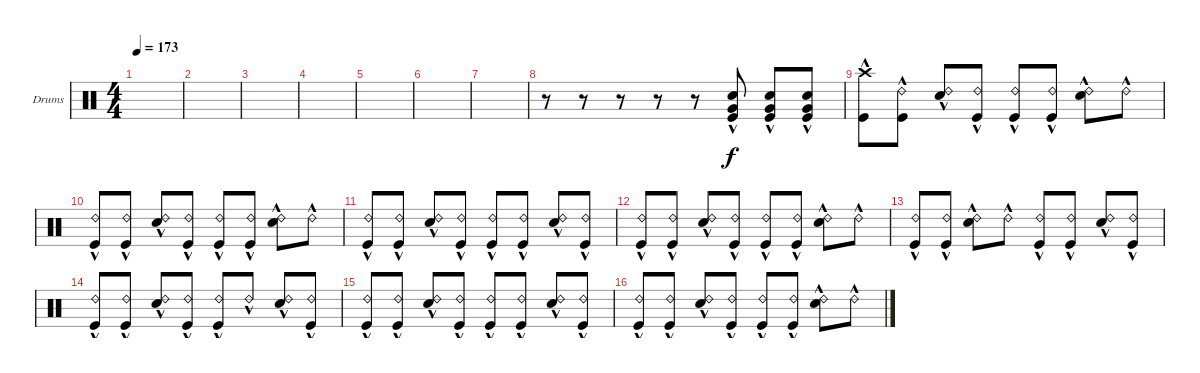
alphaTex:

\defaultSystemsLayout 4
\bracketExtendMode groupsimilarinstruments
\firstSystemTrackNameOrientation horizontal
\otherSystemsTrackNameOrientation horizontal
\track ("Drumkit" "Drums") {instrument percussion}
\staff {score}
\articulation defaults
\ts (4 4)
\tempo 173
\clef neutral
\scale
0.472222
\ks c
|
\scale
0.263889 |
\scale
0.263889 |
\scale
0.333333 |
\scale
0.333333 |
\scale
0.333333 |
|
r.8 r.8 r.8 r.8 r.8 ("Kick (hit)"{hac} "Snare (hit) 2"{hac} "Very Low Tom (hit)"{hac}).8 ("Kick (hit)"{hac} "Snare (hit) 2"{hac} "Very Low Tom (hit)"{hac}).8 ("Kick (hit)"{hac} "Snare (hit) 2"{hac} "Very Low Tom (hit)"{hac}).8 |
("Kick (hit)"{hac} "Crash high (hit)"{hac}).8 ("Ride (bell) 2"{hac} "Kick (hit)"{hac}).8 ("Ride (bell) 2"{hac} "Snare (hit) 2"{hac}).8 ("Ride (bell) 2"{hac} "Kick (hit)"{hac}).8 ("Ride (bell) 2"{hac} "Kick (hit)"{hac}).8 ("Ride (bell) 2"{hac} "Kick (hit)"{hac}).8 ("Ride (bell) 2"{hac} "Snare (hit) 2"{hac}).8 "Ride (bell) 2"{hac}.8 |
("Ride (bell) 2"{hac} "Kick (hit)"{hac}).8 ("Ride (bell) 2"{hac} "Kick (hit)"{hac}).8 ("Ride (bell) 2"{hac} "Snare (hit) 2"{hac}).8 ("Ride (bell) 2"{hac} "Kick (hit)"{hac}).8 ("Ride (bell) 2"{hac} "Kick (hit)"{hac}).8 ("Ride (bell) 2"{hac} "Kick (hit)"{hac}).8 ("Ride (bell) 2"{hac} "Snare (hit) 2"{hac}).8 "Ride (bell) 2"{hac}.8 |
("Ride (bell) 2"{hac} "Kick (hit)"{hac}).8 ("Ride (bell) 2"{hac} "Kick (hit)"{hac}).8 ("Ride (bell) 2"{hac} "Snare (hit) 2"{hac}).8 ("Ride (bell) 2"{hac} "Kick (hit)"{hac}).8 ("Ride (bell) 2"{hac} "Kick (hit)"{hac}).8 ("Ride (bell) 2"{hac} "Kick (hit)"{hac}).8 ("Ride (bell) 2"{hac} "Snare (hit) 2"{hac}).8 ("Ride (bell) 2"{hac} "Kick (hit)"{hac}).8 |
("Ride (bell) 2"{hac} "Kick (hit)"{hac}).8 ("Ride (bell) 2"{hac} "Kick (hit)"{hac}).8 ("Ride (bell) 2"{hac} "Snare (hit) 2"{hac}).8 ("Ride (bell) 2"{hac} "Kick (hit)"{hac}).8 ("Ride (bell) 2"{hac} "Kick (hit)"{hac}).8 ("Ride (bell) 2"{hac} "Kick (hit)"{hac}).8 ("Ride (bell) 2"{hac} "Snare (hit) 2"{hac}).8 "Ride (bell) 2"{hac}.8 |
("Ride (bell) 2"{hac} "Kick (hit)"{hac}).8 ("Ride (bell) 2"{hac} "Kick (hit)"{hac}).8 ("Ride (bell) 2"{hac} "Snare (hit) 2"{hac}).8 "Ride (bell) 2"{hac}.8 ("Ride (bell) 2"{hac} "Kick (hit)"{hac}).8 ("Ride (bell) 2"{hac} "Kick (hit)"{hac}).8 ("Ride (bell) 2"{hac} "Snare (hit) 2"{hac}).8 ("Ride (bell) 2"{hac} "Kick (hit)"{hac}).8 |
("Ride (bell) 2"{hac} "Kick (hit)"{hac}).8 ("Ride (bell) 2"{hac} "Kick (hit)"{hac}).8 ("Ride (bell) 2"{hac} "Snare (hit) 2"{hac}).8 ("Ride (bell) 2"{hac} "Kick (hit)"{hac}).8 ("Ride (bell) 2"{hac} "Kick (hit)"{hac}).8 "Ride (bell) 2"{hac}.8 ("Ride (bell) 2"{hac} "Snare (hit) 2"{hac}).8 ("Ride (bell) 2"{hac} "Kick (hit)"{hac}).8 |
("Ride (bell) 2"{hac} "Kick (hit)"{hac}).8 ("Ride (bell) 2"{hac} "Kick (hit)"{hac}).8 ("Ride (bell) 2"{hac} "Snare (hit) 2"{hac}).8 ("Ride (bell) 2"{hac} "Kick (hit)"{hac}).8 ("Ride (bell) 2"{hac} "Kick (hit)"{hac}).8 ("Ride (bell) 2"{hac} "Kick (hit)"{hac}).8 ("Ride (bell) 2"{hac} "Snare (hit) 2"{hac}).8 ("Ride (bell) 2"{hac} "Kick (hit)"{hac}).8 |
("Ride (bell) 2"{hac} "Kick (hit)"{hac}).8 ("Ride (bell) 2"{hac} "Kick (hit)"{hac}).8 ("Ride (bell) 2"{hac} "Snare (hit) 2"{hac}).8 ("Ride (bell) 2"{hac} "Kick (hit)"{hac}).8 ("Ride (bell) 2"{hac} "Kick (hit)"{hac}).8 ("Ride (bell) 2"{hac} "Kick (hit)"{hac}).8 ("Ride (bell) 2"{hac} "Snare (hit) 2"{hac}).8 "Ride (bell) 2"{hac}.8
